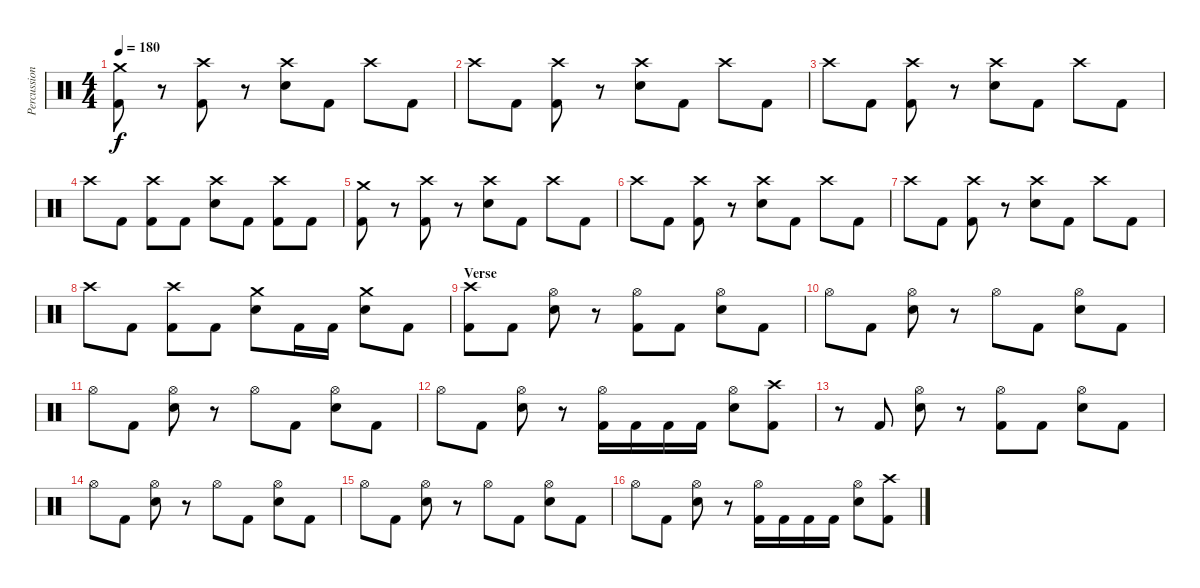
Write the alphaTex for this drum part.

\track ("Percussion" "Percussion") {instrument percussion}
\staff {score}
\articulation defaults
\ts (4 4)
\tempo 180
\clef neutral
\ks c
("Crash medium (hit)" "Kick (hit) 2").8{dy f} r.8 ("Crash high (hit)" "Kick (hit) 2").8 r.8 ("Crash high (hit)" "Electric Snare (hit)").8 "Kick (hit) 2".8 "Crash high (hit)".8 "Kick (hit) 2".8 |
"Crash high (hit)".8 "Kick (hit) 2".8 ("Crash high (hit)" "Kick (hit) 2").8 r.8 ("Crash high (hit)" "Electric Snare (hit)").8 "Kick (hit) 2".8 "Crash high (hit)".8 "Kick (hit) 2".8 |
"Crash high (hit)".8 "Kick (hit) 2".8 ("Crash high (hit)" "Kick (hit) 2").8 r.8 ("Crash high (hit)" "Electric Snare (hit)").8 "Kick (hit) 2".8 "Crash high (hit)".8 "Kick (hit) 2".8 |
"Crash high (hit)".8 "Kick (hit) 2".8 ("Crash high (hit)" "Kick (hit) 2").8 "Kick (hit) 2".8 ("Crash high (hit)" "Electric Snare (hit)").8 "Kick (hit) 2".8 ("Crash high (hit)" "Kick (hit) 2").8 "Kick (hit) 2".8 |
("Crash medium (hit)" "Kick (hit) 2").8 r.8 ("Crash high (hit)" "Kick (hit) 2").8 r.8 ("Crash high (hit)" "Electric Snare (hit)").8 "Kick (hit) 2".8 "Crash high (hit)".8 "Kick (hit) 2".8 |
"Crash high (hit)".8 "Kick (hit) 2".8 ("Crash high (hit)" "Kick (hit) 2").8 r.8 ("Crash high (hit)" "Electric Snare (hit)").8 "Kick (hit) 2".8 "Crash high (hit)".8 "Kick (hit) 2".8 |
"Crash high (hit)".8 "Kick (hit) 2".8 ("Crash high (hit)" "Kick (hit) 2").8 r.8 ("Crash high (hit)" "Electric Snare (hit)").8 "Kick (hit) 2".8 "Crash high (hit)".8 "Kick (hit) 2".8 |
"Crash high (hit)".8 "Kick (hit) 2".8 ("Crash high (hit)" "Kick (hit) 2").8 "Kick (hit) 2".8 ("Crash medium (hit)" "Electric Snare (hit)").8 "Kick (hit) 2".16 "Kick (hit) 2".16 ("Crash medium (hit)" "Electric Snare (hit)").8 "Kick (hit) 2".8 |
\section ("" "Verse")
("Crash high (hit)" "Kick (hit) 2").8 "Kick (hit) 2".8 ("Hi-Hat (open)" "Electric Snare (hit)").8 r.8 ("Hi-Hat (open)" "Kick (hit) 2").8 "Kick (hit) 2".8 ("Hi-Hat (open)" "Electric Snare (hit)").8 "Kick (hit) 2".8 |
"Hi-Hat (open)".8 "Kick (hit) 2".8 ("Hi-Hat (open)" "Electric Snare (hit)").8 r.8 "Hi-Hat (open)".8 "Kick (hit) 2".8 ("Hi-Hat (open)" "Electric Snare (hit)").8 "Kick (hit) 2".8 |
"Hi-Hat (open)".8 "Kick (hit) 2".8 ("Hi-Hat (open)" "Electric Snare (hit)").8 r.8 "Hi-Hat (open)".8 "Kick (hit) 2".8 ("Hi-Hat (open)" "Electric Snare (hit)").8 "Kick (hit) 2".8 |
"Hi-Hat (open)".8 "Kick (hit) 2".8 ("Hi-Hat (open)" "Electric Snare (hit)").8 r.8 ("Hi-Hat (open)" "Kick (hit) 2").16 "Kick (hit) 2".16 "Kick (hit) 2".16 "Kick (hit) 2".16 ("Hi-Hat (open)" "Electric Snare (hit)").8 ("Crash high (hit)" "Kick (hit) 2").8 |
r.8 "Kick (hit) 2".8 ("Hi-Hat (open)" "Electric Snare (hit)").8 r.8 ("Hi-Hat (open)" "Kick (hit) 2").8 "Kick (hit) 2".8 ("Hi-Hat (open)" "Electric Snare (hit)").8 "Kick (hit) 2".8 |
"Hi-Hat (open)".8 "Kick (hit) 2".8 ("Hi-Hat (open)" "Electric Snare (hit)").8 r.8 "Hi-Hat (open)".8 "Kick (hit) 2".8 ("Hi-Hat (open)" "Electric Snare (hit)").8 "Kick (hit) 2".8 |
"Hi-Hat (open)".8 "Kick (hit) 2".8 ("Hi-Hat (open)" "Electric Snare (hit)").8 r.8 "Hi-Hat (open)".8 "Kick (hit) 2".8 ("Hi-Hat (open)" "Electric Snare (hit)").8 "Kick (hit) 2".8 |
"Hi-Hat (open)".8 "Kick (hit) 2".8 ("Hi-Hat (open)" "Electric Snare (hit)").8 r.8 ("Hi-Hat (open)" "Kick (hit) 2").16 "Kick (hit) 2".16 "Kick (hit) 2".16 "Kick (hit) 2".16 ("Hi-Hat (open)" "Electric Snare (hit)").8 ("Crash high (hit)" "Kick (hit) 2").8
